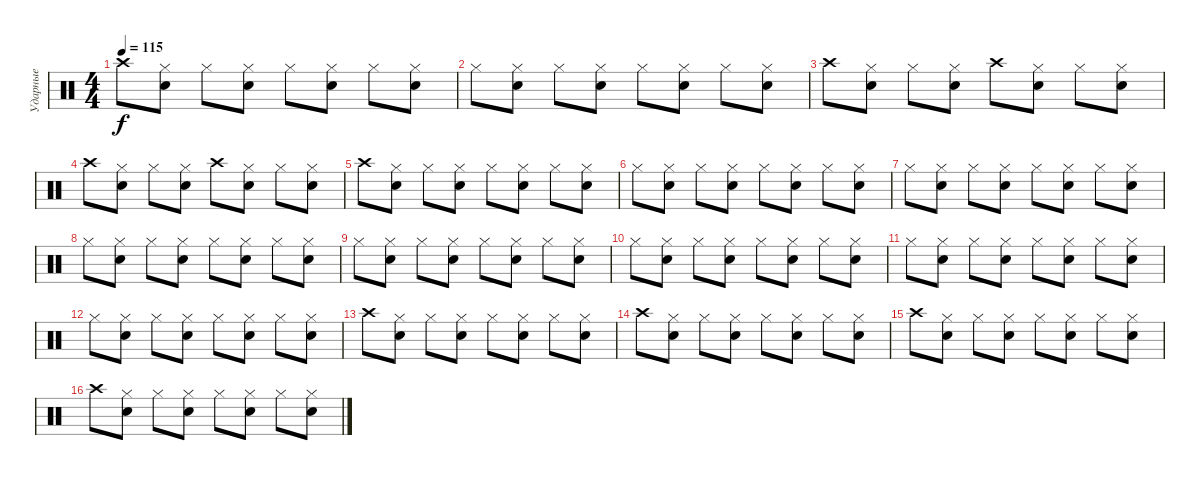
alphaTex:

\track ("Ударные" "Ударные") {instrument percussion}
\staff {score}
\articulation defaults
\ts (4 4)
\tempo 115
\clef neutral
\ks c "Crash high (hit)".8{dy f}
("Hi-Hat (closed)" "Snare (hit) 2").8 "Hi-Hat (closed)".8 ("Hi-Hat (closed)" "Snare (hit) 2").8 "Hi-Hat (closed)".8 ("Hi-Hat (closed)" "Snare (hit) 2").8 "Hi-Hat (closed)".8 ("Hi-Hat (closed)" "Snare (hit) 2").8 |
"Hi-Hat (closed)".8 ("Hi-Hat (closed)" "Snare (hit) 2").8 "Hi-Hat (closed)".8 ("Hi-Hat (closed)" "Snare (hit) 2").8 "Hi-Hat (closed)".8 ("Hi-Hat (closed)" "Snare (hit) 2").8 "Hi-Hat (closed)".8 ("Hi-Hat (closed)" "Snare (hit) 2").8 |
"Crash high (hit)".8 ("Hi-Hat (closed)" "Snare (hit) 2").8 "Hi-Hat (closed)".8 ("Hi-Hat (closed)" "Snare (hit) 2").8 "Crash high (hit)".8 ("Hi-Hat (closed)" "Snare (hit) 2").8 "Hi-Hat (closed)".8 ("Hi-Hat (closed)" "Snare (hit) 2").8 |
"Crash high (hit)".8 ("Hi-Hat (closed)" "Snare (hit) 2").8 "Hi-Hat (closed)".8 ("Hi-Hat (closed)" "Snare (hit) 2").8 "Crash high (hit)".8 ("Hi-Hat (closed)" "Snare (hit) 2").8 "Hi-Hat (closed)".8 ("Hi-Hat (closed)" "Snare (hit) 2").8 |
"Crash high (hit)".8 ("Hi-Hat (closed)" "Snare (hit) 2").8 "Hi-Hat (closed)".8 ("Hi-Hat (closed)" "Snare (hit) 2").8 "Hi-Hat (closed)".8 ("Hi-Hat (closed)" "Snare (hit) 2").8 "Hi-Hat (closed)".8 ("Hi-Hat (closed)" "Snare (hit) 2").8 |
"Hi-Hat (closed)".8 ("Hi-Hat (closed)" "Snare (hit) 2").8 "Hi-Hat (closed)".8 ("Hi-Hat (closed)" "Snare (hit) 2").8 "Hi-Hat (closed)".8 ("Hi-Hat (closed)" "Snare (hit) 2").8 "Hi-Hat (closed)".8 ("Hi-Hat (closed)" "Snare (hit) 2").8 |
"Hi-Hat (closed)".8 ("Hi-Hat (closed)" "Snare (hit) 2").8 "Hi-Hat (closed)".8 ("Hi-Hat (closed)" "Snare (hit) 2").8 "Hi-Hat (closed)".8 ("Hi-Hat (closed)" "Snare (hit) 2").8 "Hi-Hat (closed)".8 ("Hi-Hat (closed)" "Snare (hit) 2").8 |
"Hi-Hat (closed)".8 ("Hi-Hat (closed)" "Snare (hit) 2").8 "Hi-Hat (closed)".8 ("Hi-Hat (closed)" "Snare (hit) 2").8 "Hi-Hat (closed)".8 ("Hi-Hat (closed)" "Snare (hit) 2").8 "Hi-Hat (closed)".8 ("Hi-Hat (closed)" "Snare (hit) 2").8 |
"Hi-Hat (closed)".8 ("Hi-Hat (closed)" "Snare (hit) 2").8 "Hi-Hat (closed)".8 ("Hi-Hat (closed)" "Snare (hit) 2").8 "Hi-Hat (closed)".8 ("Hi-Hat (closed)" "Snare (hit) 2").8 "Hi-Hat (closed)".8 ("Hi-Hat (closed)" "Snare (hit) 2").8 |
"Hi-Hat (closed)".8 ("Hi-Hat (closed)" "Snare (hit) 2").8 "Hi-Hat (closed)".8 ("Hi-Hat (closed)" "Snare (hit) 2").8 "Hi-Hat (closed)".8 ("Hi-Hat (closed)" "Snare (hit) 2").8 "Hi-Hat (closed)".8 ("Hi-Hat (closed)" "Snare (hit) 2").8 |
"Hi-Hat (closed)".8 ("Hi-Hat (closed)" "Snare (hit) 2").8 "Hi-Hat (closed)".8 ("Hi-Hat (closed)" "Snare (hit) 2").8 "Hi-Hat (closed)".8 ("Hi-Hat (closed)" "Snare (hit) 2").8 "Hi-Hat (closed)".8 ("Hi-Hat (closed)" "Snare (hit) 2").8 |
"Hi-Hat (closed)".8 ("Hi-Hat (closed)" "Snare (hit) 2").8 "Hi-Hat (closed)".8 ("Hi-Hat (closed)" "Snare (hit) 2").8 "Hi-Hat (closed)".8 ("Hi-Hat (closed)" "Snare (hit) 2").8 "Hi-Hat (closed)".8 ("Hi-Hat (closed)" "Snare (hit) 2").8 |
"Crash high (hit)".8 ("Hi-Hat (closed)" "Snare (hit) 2").8 "Hi-Hat (closed)".8 ("Hi-Hat (closed)" "Snare (hit) 2").8 "Hi-Hat (closed)".8 ("Hi-Hat (closed)" "Snare (hit) 2").8 "Hi-Hat (closed)".8 ("Hi-Hat (closed)" "Snare (hit) 2").8 |
"Crash high (hit)".8 ("Hi-Hat (closed)" "Snare (hit) 2").8 "Hi-Hat (closed)".8 ("Hi-Hat (closed)" "Snare (hit) 2").8 "Hi-Hat (closed)".8 ("Hi-Hat (closed)" "Snare (hit) 2").8 "Hi-Hat (closed)".8 ("Hi-Hat (closed)" "Snare (hit) 2").8 |
"Crash high (hit)".8 ("Hi-Hat (closed)" "Snare (hit) 2").8 "Hi-Hat (closed)".8 ("Hi-Hat (closed)" "Snare (hit) 2").8 "Hi-Hat (closed)".8 ("Hi-Hat (closed)" "Snare (hit) 2").8 "Hi-Hat (closed)".8 ("Hi-Hat (closed)" "Snare (hit) 2").8 |
"Crash high (hit)".8 ("Hi-Hat (closed)" "Snare (hit) 2").8 "Hi-Hat (closed)".8 ("Hi-Hat (closed)" "Snare (hit) 2").8 "Hi-Hat (closed)".8 ("Hi-Hat (closed)" "Snare (hit) 2").8 "Hi-Hat (closed)".8 ("Hi-Hat (closed)" "Snare (hit) 2").8
